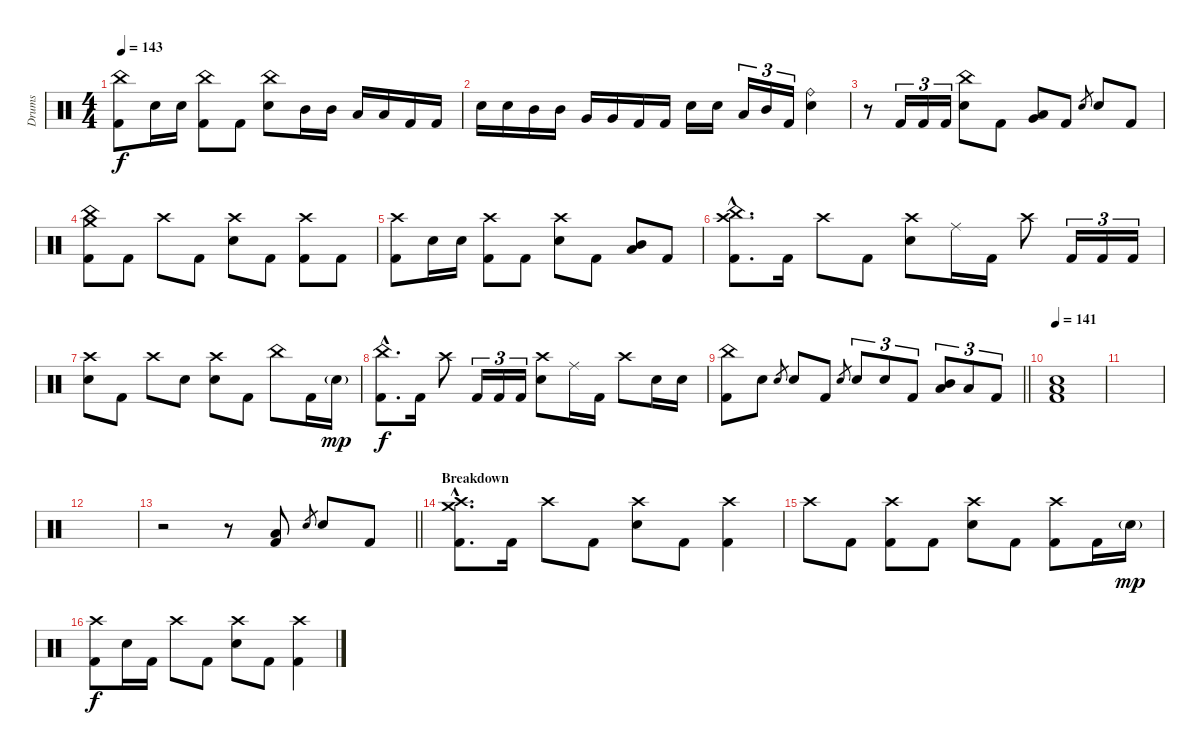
\track ("Drums" "Drums") {instrument percussion}
\staff {score}
\articulation defaults
\ts (4 4)
\tempo 143
\clef neutral
\ks c
("China (hit)" "Kick (hit) 2").8{dy f} "Electric Snare (hit)".16 "Electric Snare (hit)".16 ("China (hit)" "Kick (hit) 2").8 "Kick (hit) 2".8 ("China (hit)" "Electric Snare (hit)").8 "Mid Tom (hit)".16 "Mid Tom (hit)".16 "Low Floor Tom (hit)".16 "Low Floor Tom (hit)".16 "Kick (hit) 2".16 "Kick (hit) 2".16 |
"Electric Snare (hit)".16 "Electric Snare (hit)".16 "Mid Tom (hit)".16 "Mid Tom (hit)".16 "Very Low Tom (hit)".16 "Very Low Tom (hit)".16 "Kick (hit) 2".16 "Kick (hit) 2".16 "Electric Snare (hit)".16 "Electric Snare (hit)".16 "Low Floor Tom (hit)".16{tu (3 2)} "Mid Tom (hit)".16{tu (3 2)} "Kick (hit) 2".16{tu (3 2)} ("Ride (bell)" "Electric Snare (hit)").4 |
r.8 "Kick (hit) 2".16{tu (3 2)} "Kick (hit) 2".16{tu (3 2)} "Kick (hit) 2".16{tu (3 2)} ("China (hit)" "Electric Snare (hit)").8 "Kick (hit) 2".8 ("Very Low Tom (hit)" "Low Floor Tom (hit)").8{bu 60} "Kick (hit) 2".8 "Electric Snare (hit)".8{gr} "Electric Snare (hit)".8 "Kick (hit) 2".8 |
("Crash medium (hit)" "China (hit)" "Kick (hit) 2").8 "Kick (hit) 2".8 "Crash high (hit)".8 "Kick (hit) 2".8 ("Crash high (hit)" "Electric Snare (hit)").8 "Kick (hit) 2".8 ("Crash high (hit)" "Kick (hit) 2").8 "Kick (hit) 2".8 |
("Crash high (hit)" "Kick (hit) 2").8 "Electric Snare (hit)".16 "Electric Snare (hit)".16 ("Crash high (hit)" "Kick (hit) 2").8 "Kick (hit) 2".8 ("Crash high (hit)" "Electric Snare (hit)").8 "Kick (hit) 2".8 ("Mid Tom (hit)" "Low Floor Tom (hit)").8{bu 60} "Kick (hit) 2".8 |
("Crash high (hit)"{hac} "China (hit)"{hac} "Kick (hit) 2"{hac}).8{d} "Kick (hit) 2".16 "Crash high (hit)".8 "Kick (hit) 2".8 ("Crash high (hit)" "Electric Snare (hit)").8 "Ride (middle)".16 "Kick (hit) 2".16 "Crash high (hit)".8 "Kick (hit) 2".16{tu (3 2)} "Kick (hit) 2".16{tu (3 2)} "Kick (hit) 2".16{tu (3 2)} |
("Crash high (hit)" "Electric Snare (hit)").8 "Kick (hit) 2".8 "Crash high (hit)".8 "Electric Snare (hit)".8 ("Crash high (hit)" "Electric Snare (hit)").8 "Kick (hit) 2".8 "China (hit)".8 "Kick (hit) 2".16 "Electric Snare (hit)"{g}.16{dy mp} |
("China (hit)"{hac} "Kick (hit) 2"{hac}).8{d dy f} "Kick (hit) 2".16 "Crash high (hit)".8 "Kick (hit) 2".16{tu (3 2)} "Kick (hit) 2".16{tu (3 2)} "Kick (hit) 2".16{tu (3 2)} ("Crash high (hit)" "Electric Snare (hit)").8 "Ride (middle)".16 "Kick (hit) 2".16 "Crash high (hit)".8 "Electric Snare (hit)".16 "Electric Snare (hit)".16 |
\barLineRight lightlight
("China (hit)" "Kick (hit) 2").8 "Electric Snare (hit)".8 "Electric Snare (hit)".8{gr} "Electric Snare (hit)".8 "Kick (hit) 2".8 "Electric Snare (hit)".8{gr} "Electric Snare (hit)".8{tu (3 2)} "Electric Snare (hit)".8{tu (3 2)} "Kick (hit) 2".8{tu (3 2)} ("Mid Tom (hit)" "Low Floor Tom (hit)").8{tu (3 2)} "Low Floor Tom (hit)".8{tu (3 2)} "Kick (hit) 2".8{tu (3 2)} |
\section ("" "")
\tempo 141
("Low Floor Tom (hit)" "Electric Snare (hit)" "Kick (hit) 2").1 |
|
|
\barLineRight lightlight
r.2 r.8 ("Low Floor Tom (hit)" "Kick (hit) 2").8 "Electric Snare (hit)".8{gr} "Electric Snare (hit)".8 "Kick (hit) 2".8 |
\section ("" "Breakdown")
("Crash high (hit)"{hac} "Crash medium (hit)"{hac} "Kick (hit) 2"{hac}).8{d} "Kick (hit) 2".16 "Crash high (hit)".8 "Kick (hit) 2".8 ("Crash high (hit)" "Electric Snare (hit)").8 "Kick (hit) 2".8 ("Crash high (hit)" "Kick (hit) 2").4 |
"Crash high (hit)".8 "Kick (hit) 2".8 ("Crash high (hit)" "Kick (hit) 2").8 "Kick (hit) 2".8 ("Crash high (hit)" "Electric Snare (hit)").8 "Kick (hit) 2".8 ("Crash high (hit)" "Kick (hit) 2").8 "Kick (hit) 2".16 "Electric Snare (hit)"{g}.16{dy mp} |
("Crash high (hit)" "Kick (hit) 2").8{dy f} "Electric Snare (hit)".16 "Kick (hit) 2".16 "Crash high (hit)".8 "Kick (hit) 2".8 ("Crash high (hit)" "Electric Snare (hit)").8 "Kick (hit) 2".8 ("Crash high (hit)" "Kick (hit) 2").4
